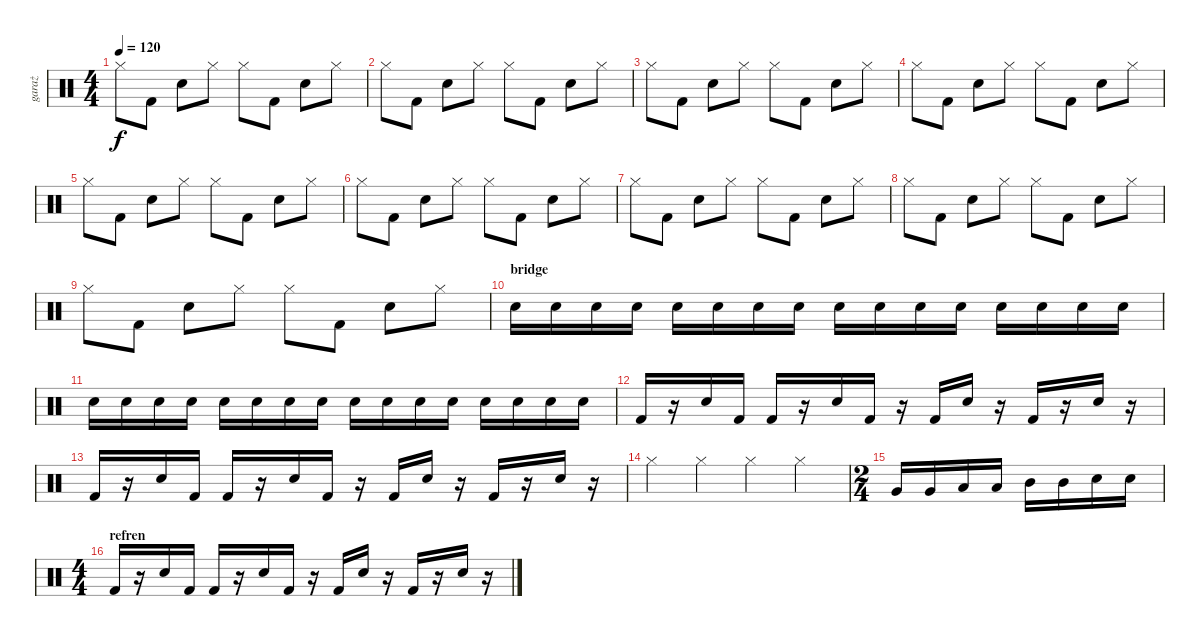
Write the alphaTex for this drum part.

\track ("garaż" "garaż") {instrument percussion}
\staff {score}
\articulation defaults
\ts (4 4)
\tempo 120
\clef neutral
\ks c "Hi-Hat (closed)".8{dy f} "Kick (hit) 2".8 "Snare (hit) 2".8 "Hi-Hat (closed)".8 "Hi-Hat (closed)".8 "Kick (hit) 2".8 "Snare (hit) 2".8 "Hi-Hat (closed)".8
|
"Hi-Hat (closed)".8 "Kick (hit) 2".8 "Snare (hit) 2".8 "Hi-Hat (closed)".8 "Hi-Hat (closed)".8 "Kick (hit) 2".8 "Snare (hit) 2".8 "Hi-Hat (closed)".8 |
"Hi-Hat (closed)".8 "Kick (hit) 2".8 "Snare (hit) 2".8 "Hi-Hat (closed)".8 "Hi-Hat (closed)".8 "Kick (hit) 2".8 "Snare (hit) 2".8 "Hi-Hat (closed)".8 |
"Hi-Hat (closed)".8 "Kick (hit) 2".8 "Snare (hit) 2".8 "Hi-Hat (closed)".8 "Hi-Hat (closed)".8 "Kick (hit) 2".8 "Snare (hit) 2".8 "Hi-Hat (closed)".8 |
"Hi-Hat (closed)".8 "Kick (hit) 2".8 "Snare (hit) 2".8 "Hi-Hat (closed)".8 "Hi-Hat (closed)".8 "Kick (hit) 2".8 "Snare (hit) 2".8 "Hi-Hat (closed)".8 |
"Hi-Hat (closed)".8 "Kick (hit) 2".8 "Snare (hit) 2".8 "Hi-Hat (closed)".8 "Hi-Hat (closed)".8 "Kick (hit) 2".8 "Snare (hit) 2".8 "Hi-Hat (closed)".8 |
"Hi-Hat (closed)".8 "Kick (hit) 2".8 "Snare (hit) 2".8 "Hi-Hat (closed)".8 "Hi-Hat (closed)".8 "Kick (hit) 2".8 "Snare (hit) 2".8 "Hi-Hat (closed)".8 |
"Hi-Hat (closed)".8 "Kick (hit) 2".8 "Snare (hit) 2".8 "Hi-Hat (closed)".8 "Hi-Hat (closed)".8 "Kick (hit) 2".8 "Snare (hit) 2".8 "Hi-Hat (closed)".8 |
"Hi-Hat (closed)".8 "Kick (hit) 2".8 "Snare (hit) 2".8 "Hi-Hat (closed)".8 "Hi-Hat (closed)".8 "Kick (hit) 2".8 "Snare (hit) 2".8 "Hi-Hat (closed)".8 |
\section ("" "bridge")
"Snare (hit) 2".16 "Snare (hit) 2".16 "Snare (hit) 2".16 "Snare (hit) 2".16 "Snare (hit) 2".16 "Snare (hit) 2".16 "Snare (hit) 2".16 "Snare (hit) 2".16 "Snare (hit) 2".16 "Snare (hit) 2".16 "Snare (hit) 2".16 "Snare (hit) 2".16 "Snare (hit) 2".16 "Snare (hit) 2".16 "Snare (hit) 2".16 "Snare (hit) 2".16 |
"Snare (hit) 2".16 "Snare (hit) 2".16 "Snare (hit) 2".16 "Snare (hit) 2".16 "Snare (hit) 2".16 "Snare (hit) 2".16 "Snare (hit) 2".16 "Snare (hit) 2".16 "Snare (hit) 2".16 "Snare (hit) 2".16 "Snare (hit) 2".16 "Snare (hit) 2".16 "Snare (hit) 2".16 "Snare (hit) 2".16 "Snare (hit) 2".16 "Snare (hit) 2".16 |
"Kick (hit) 2".16 r.16 "Snare (hit) 2".16 "Kick (hit) 2".16 "Kick (hit) 2".16 r.16 "Snare (hit) 2".16 "Kick (hit) 2".16 r.16 "Kick (hit) 2".16 "Snare (hit) 2".16 r.16 "Kick (hit) 2".16 r.16 "Snare (hit) 2".16 r.16 |
"Kick (hit) 2".16 r.16 "Snare (hit) 2".16 "Kick (hit) 2".16 "Kick (hit) 2".16 r.16 "Snare (hit) 2".16 "Kick (hit) 2".16 r.16 "Kick (hit) 2".16 "Snare (hit) 2".16 r.16 "Kick (hit) 2".16 r.16 "Snare (hit) 2".16 r.16 |
"Hi-Hat (closed)".4 "Hi-Hat (closed)".4 "Hi-Hat (closed)".4 "Hi-Hat (closed)".4 |
\ts (2 4)
"Very Low Tom (hit)".16 "Very Low Tom (hit)".16 "Low Tom (hit)".16 "Low Tom (hit)".16 "Mid Tom (hit)".16 "Mid Tom (hit)".16 "Snare (hit) 2".16 "Snare (hit) 2".16 |
\ts (4 4)
\section ("" "refren")
"Kick (hit) 2".16 r.16 "Snare (hit) 2".16 "Kick (hit) 2".16 "Kick (hit) 2".16 r.16 "Snare (hit) 2".16 "Kick (hit) 2".16 r.16 "Kick (hit) 2".16 "Snare (hit) 2".16 r.16 "Kick (hit) 2".16 r.16 "Snare (hit) 2".16 r.16
